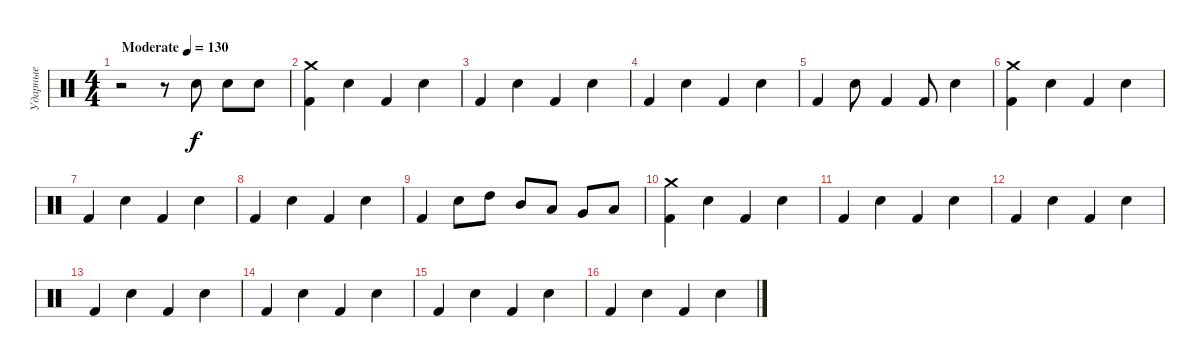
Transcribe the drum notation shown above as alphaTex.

\track ("Ударные" "Ударные") {instrument percussion}
\staff {score}
\articulation defaults
\ts (4 4)
\tempo (130 "Moderate")
\clef neutral
\ks c
r.2{dy f} r.8 "Electric Snare (hit)".8 "Snare (hit) 2".8 "Electric Snare (hit)".8 |
("Kick (hit) 2" "Crash medium (hit)").4 "Snare (hit) 2".4 "Kick (hit) 2".4 "Snare (hit) 2".4 |
"Kick (hit) 2".4 "Snare (hit) 2".4 "Kick (hit) 2".4 "Snare (hit) 2".4 |
"Kick (hit) 2".4 "Snare (hit) 2".4 "Kick (hit) 2".4 "Snare (hit) 2".4 |
"Kick (hit) 2".4 "Snare (hit) 2".8 "Kick (hit) 2".4 "Kick (hit) 2".8 "Snare (hit) 2".4 |
("Kick (hit) 2" "Crash medium (hit)").4 "Snare (hit) 2".4 "Kick (hit) 2".4 "Snare (hit) 2".4 |
"Kick (hit) 2".4 "Snare (hit) 2".4 "Kick (hit) 2".4 "Snare (hit) 2".4 |
"Kick (hit) 2".4 "Snare (hit) 2".4 "Kick (hit) 2".4 "Snare (hit) 2".4 |
"Kick (hit) 2".4 "Snare (hit) 2".8 "High Tom (hit)".8 "Mid Tom (hit)".8 "Low Tom (hit)".8 "Very Low Tom (hit)".8 "Low Floor Tom (hit)".8 |
("Kick (hit) 2" "Crash medium (hit)").4 "Snare (hit) 2".4 "Kick (hit) 2".4 "Snare (hit) 2".4 |
"Kick (hit) 2".4 "Snare (hit) 2".4 "Kick (hit) 2".4 "Snare (hit) 2".4 |
"Kick (hit) 2".4 "Snare (hit) 2".4 "Kick (hit) 2".4 "Snare (hit) 2".4 |
"Kick (hit) 2".4 "Snare (hit) 2".4 "Kick (hit) 2".4 "Snare (hit) 2".4 |
"Kick (hit) 2".4 "Snare (hit) 2".4 "Kick (hit) 2".4 "Snare (hit) 2".4 |
"Kick (hit) 2".4 "Snare (hit) 2".4 "Kick (hit) 2".4 "Snare (hit) 2".4 |
"Kick (hit) 2".4 "Snare (hit) 2".4 "Kick (hit) 2".4 "Snare (hit) 2".4
